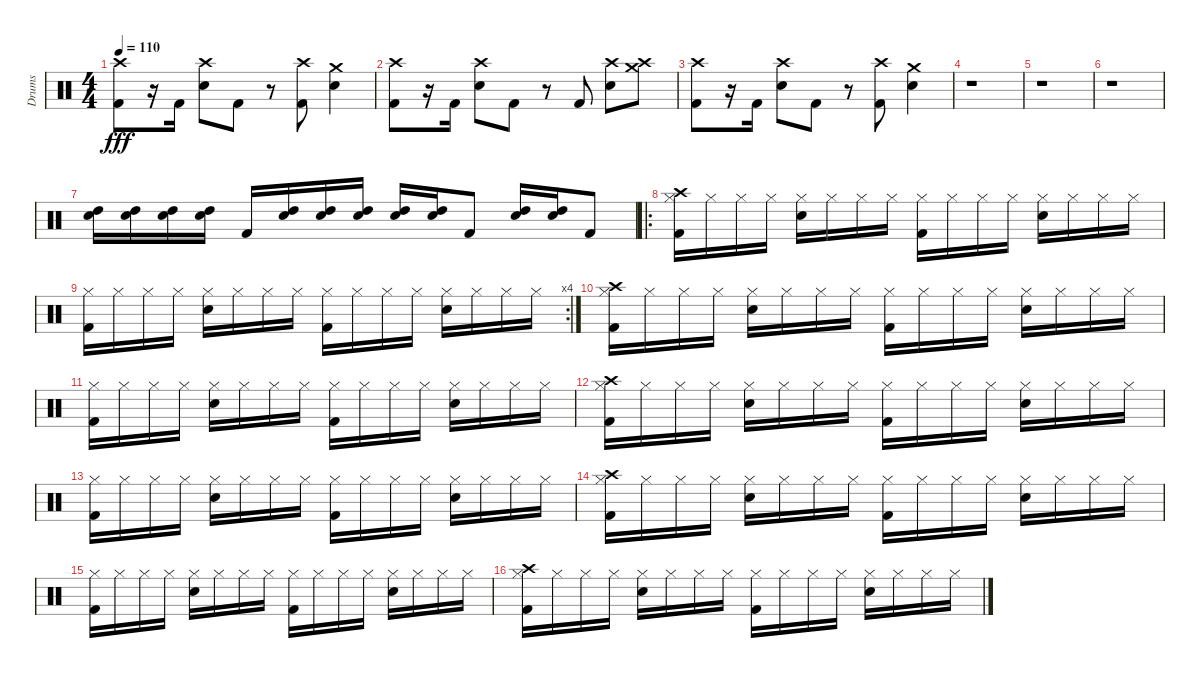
\track ("Drums" "Drums") {instrument percussion}
\staff {score}
\articulation defaults
\ts (4 4)
\tempo 110
\clef neutral
\ks c
("Crash high (hit)" "Kick (hit) 2").8{dy fff} r.16 "Kick (hit) 2".16 ("Crash high (hit)" "Electric Snare (hit)").8 "Kick (hit) 2".8 r.8 ("Crash high (hit)" "Kick (hit) 2").8 ("Crash medium (hit)" "Electric Snare (hit)").4 |
("Crash high (hit)" "Kick (hit) 2").8 r.16 "Kick (hit) 2".16 ("Crash high (hit)" "Electric Snare (hit)").8 "Kick (hit) 2".8 r.8 "Kick (hit) 2".8 ("Crash high (hit)" "Electric Snare (hit)").8 ("Crash high (hit)" "Crash medium (hit)").8 |
("Crash high (hit)" "Kick (hit) 2").8 r.16 "Kick (hit) 2".16 ("Crash high (hit)" "Electric Snare (hit)").8 "Kick (hit) 2".8 r.8 ("Crash high (hit)" "Kick (hit) 2").8 ("Crash medium (hit)" "Electric Snare (hit)").4 |
r.1 |
r.1 |
r.1 |
("High Tom (hit)" "Electric Snare (hit)").16 ("High Tom (hit)" "Electric Snare (hit)").16 ("High Tom (hit)" "Electric Snare (hit)").16 ("High Tom (hit)" "Electric Snare (hit)").16 "Kick (hit) 2".16 ("High Tom (hit)" "Electric Snare (hit)").16 ("High Tom (hit)" "Electric Snare (hit)").16 ("High Tom (hit)" "Electric Snare (hit)").16 ("High Tom (hit)" "Electric Snare (hit)").16 ("High Tom (hit)" "Electric Snare (hit)").16 "Kick (hit) 2".8 ("High Tom (hit)" "Electric Snare (hit)").16 ("High Tom (hit)" "Electric Snare (hit)").16 "Kick (hit) 2".8 |
\ro
("Crash high (hit)" "Hi-Hat (closed)" "Kick (hit) 2").16 "Hi-Hat (closed)".16 "Hi-Hat (closed)".16 "Hi-Hat (closed)".16 ("Hi-Hat (closed)" "Electric Snare (hit)").16 "Hi-Hat (closed)".16 "Hi-Hat (closed)".16 "Hi-Hat (closed)".16 ("Hi-Hat (closed)" "Kick (hit) 2").16 "Hi-Hat (closed)".16 "Hi-Hat (closed)".16 "Hi-Hat (closed)".16 ("Hi-Hat (closed)" "Electric Snare (hit)").16 "Hi-Hat (closed)".16 "Hi-Hat (closed)".16 "Hi-Hat (closed)".16 |
\rc 4
("Hi-Hat (closed)" "Kick (hit) 2").16 "Hi-Hat (closed)".16 "Hi-Hat (closed)".16 "Hi-Hat (closed)".16 ("Hi-Hat (closed)" "Electric Snare (hit)").16 "Hi-Hat (closed)".16 "Hi-Hat (closed)".16 "Hi-Hat (closed)".16 ("Hi-Hat (closed)" "Kick (hit) 2").16 "Hi-Hat (closed)".16 "Hi-Hat (closed)".16 "Hi-Hat (closed)".16 ("Hi-Hat (closed)" "Electric Snare (hit)").16 "Hi-Hat (closed)".16 "Hi-Hat (closed)".16 "Hi-Hat (closed)".16 |
("Crash high (hit)" "Hi-Hat (closed)" "Kick (hit) 2").16 "Hi-Hat (closed)".16 "Hi-Hat (closed)".16 "Hi-Hat (closed)".16 ("Hi-Hat (closed)" "Electric Snare (hit)").16 "Hi-Hat (closed)".16 "Hi-Hat (closed)".16 "Hi-Hat (closed)".16 ("Hi-Hat (closed)" "Kick (hit) 2").16 "Hi-Hat (closed)".16 "Hi-Hat (closed)".16 "Hi-Hat (closed)".16 ("Hi-Hat (closed)" "Electric Snare (hit)").16 "Hi-Hat (closed)".16 "Hi-Hat (closed)".16 "Hi-Hat (closed)".16 |
("Hi-Hat (closed)" "Kick (hit) 2").16 "Hi-Hat (closed)".16 "Hi-Hat (closed)".16 "Hi-Hat (closed)".16 ("Hi-Hat (closed)" "Electric Snare (hit)").16 "Hi-Hat (closed)".16 "Hi-Hat (closed)".16 "Hi-Hat (closed)".16 ("Hi-Hat (closed)" "Kick (hit) 2").16 "Hi-Hat (closed)".16 "Hi-Hat (closed)".16 "Hi-Hat (closed)".16 ("Hi-Hat (closed)" "Electric Snare (hit)").16 "Hi-Hat (closed)".16 "Hi-Hat (closed)".16 "Hi-Hat (closed)".16 |
("Crash high (hit)" "Hi-Hat (closed)" "Kick (hit) 2").16 "Hi-Hat (closed)".16 "Hi-Hat (closed)".16 "Hi-Hat (closed)".16 ("Hi-Hat (closed)" "Electric Snare (hit)").16 "Hi-Hat (closed)".16 "Hi-Hat (closed)".16 "Hi-Hat (closed)".16 ("Hi-Hat (closed)" "Kick (hit) 2").16 "Hi-Hat (closed)".16 "Hi-Hat (closed)".16 "Hi-Hat (closed)".16 ("Hi-Hat (closed)" "Electric Snare (hit)").16 "Hi-Hat (closed)".16 "Hi-Hat (closed)".16 "Hi-Hat (closed)".16 |
("Hi-Hat (closed)" "Kick (hit) 2").16 "Hi-Hat (closed)".16 "Hi-Hat (closed)".16 "Hi-Hat (closed)".16 ("Hi-Hat (closed)" "Electric Snare (hit)").16 "Hi-Hat (closed)".16 "Hi-Hat (closed)".16 "Hi-Hat (closed)".16 ("Hi-Hat (closed)" "Kick (hit) 2").16 "Hi-Hat (closed)".16 "Hi-Hat (closed)".16 "Hi-Hat (closed)".16 ("Hi-Hat (closed)" "Electric Snare (hit)").16 "Hi-Hat (closed)".16 "Hi-Hat (closed)".16 "Hi-Hat (closed)".16 |
("Crash high (hit)" "Hi-Hat (closed)" "Kick (hit) 2").16 "Hi-Hat (closed)".16 "Hi-Hat (closed)".16 "Hi-Hat (closed)".16 ("Hi-Hat (closed)" "Electric Snare (hit)").16 "Hi-Hat (closed)".16 "Hi-Hat (closed)".16 "Hi-Hat (closed)".16 ("Hi-Hat (closed)" "Kick (hit) 2").16 "Hi-Hat (closed)".16 "Hi-Hat (closed)".16 "Hi-Hat (closed)".16 ("Hi-Hat (closed)" "Electric Snare (hit)").16 "Hi-Hat (closed)".16 "Hi-Hat (closed)".16 "Hi-Hat (closed)".16 |
("Hi-Hat (closed)" "Kick (hit) 2").16 "Hi-Hat (closed)".16 "Hi-Hat (closed)".16 "Hi-Hat (closed)".16 ("Hi-Hat (closed)" "Electric Snare (hit)").16 "Hi-Hat (closed)".16 "Hi-Hat (closed)".16 "Hi-Hat (closed)".16 ("Hi-Hat (closed)" "Kick (hit) 2").16 "Hi-Hat (closed)".16 "Hi-Hat (closed)".16 "Hi-Hat (closed)".16 ("Hi-Hat (closed)" "Electric Snare (hit)").16 "Hi-Hat (closed)".16 "Hi-Hat (closed)".16 "Hi-Hat (closed)".16 |
("Crash high (hit)" "Hi-Hat (closed)" "Kick (hit) 2").16 "Hi-Hat (closed)".16 "Hi-Hat (closed)".16 "Hi-Hat (closed)".16 ("Hi-Hat (closed)" "Electric Snare (hit)").16 "Hi-Hat (closed)".16 "Hi-Hat (closed)".16 "Hi-Hat (closed)".16 ("Hi-Hat (closed)" "Kick (hit) 2").16 "Hi-Hat (closed)".16 "Hi-Hat (closed)".16 "Hi-Hat (closed)".16 ("Hi-Hat (closed)" "Electric Snare (hit)").16 "Hi-Hat (closed)".16 "Hi-Hat (closed)".16 "Hi-Hat (closed)".16
